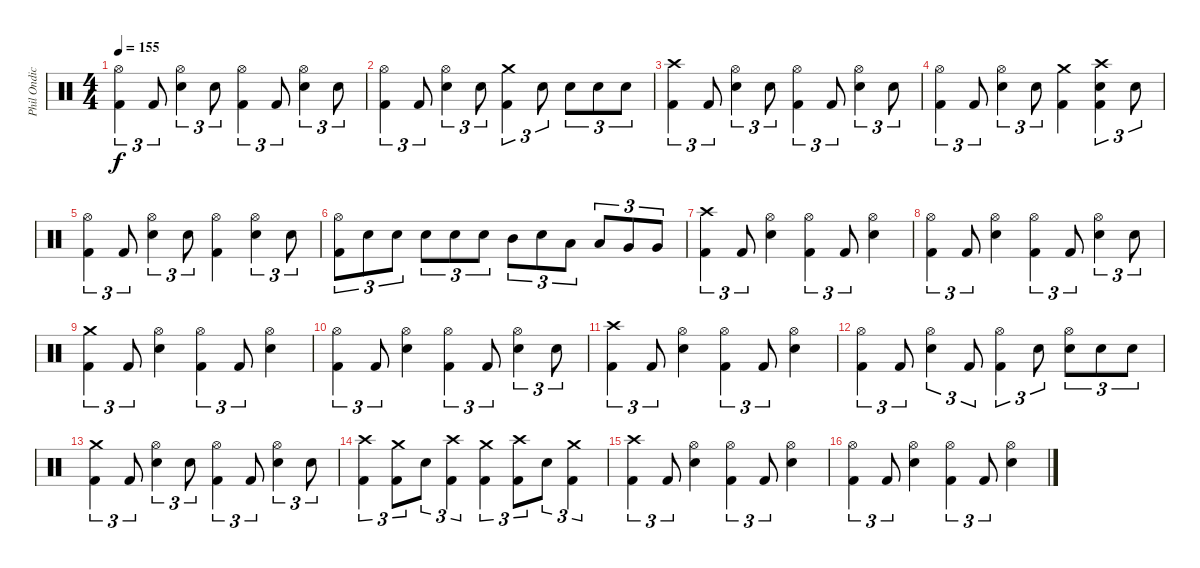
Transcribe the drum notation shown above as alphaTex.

\track ("Phil Ondich Drums" "Phil Ondic") {instrument percussion}
\staff {score}
\articulation defaults
\ts (4 4)
\tempo 155
\clef neutral
\ks c
("Hi-Hat (open)" "Kick (hit) 2").4{tu (3 2) dy f} "Kick (hit) 2".8{tu (3 2)} ("Hi-Hat (open)" "Snare (hit) 2").4{tu (3 2)} "Snare (hit) 2".8{tu (3 2)} ("Hi-Hat (open)" "Kick (hit) 2").4{tu (3 2)} "Kick (hit) 2".8{tu (3 2)} ("Hi-Hat (open)" "Snare (hit) 2").4{tu (3 2)} "Snare (hit) 2".8{tu (3 2)} |
("Hi-Hat (open)" "Kick (hit) 2").4{tu (3 2)} "Kick (hit) 2".8{tu (3 2)} ("Hi-Hat (open)" "Snare (hit) 2").4{tu (3 2)} "Snare (hit) 2".8{tu (3 2)} ("Crash medium (hit)" "Kick (hit) 2").4{tu (3 2)} "Snare (hit) 2".8{tu (3 2)} "Snare (hit) 2".8{tu (3 2)} "Snare (hit) 2".8{tu (3 2)} "Snare (hit) 2".8{tu (3 2)} |
("Crash high (hit)" "Kick (hit) 2").4{tu (3 2)} "Kick (hit) 2".8{tu (3 2)} ("Hi-Hat (open)" "Snare (hit) 2").4{tu (3 2)} "Snare (hit) 2".8{tu (3 2)} ("Hi-Hat (open)" "Kick (hit) 2").4{tu (3 2)} "Kick (hit) 2".8{tu (3 2)} ("Hi-Hat (open)" "Snare (hit) 2").4{tu (3 2)} "Snare (hit) 2".8{tu (3 2)} |
("Hi-Hat (open)" "Kick (hit) 2").4{tu (3 2)} "Kick (hit) 2".8{tu (3 2)} ("Hi-Hat (open)" "Snare (hit) 2").4{tu (3 2)} "Snare (hit) 2".8{tu (3 2)} ("Crash medium (hit)" "Kick (hit) 2").4 ("Crash high (hit)" "Snare (hit) 2" "Kick (hit) 2").4{tu (3 2)} "Snare (hit) 2".8{tu (3 2)} |
("Hi-Hat (open)" "Kick (hit) 2").4{tu (3 2)} "Kick (hit) 2".8{tu (3 2)} ("Hi-Hat (open)" "Snare (hit) 2").4{tu (3 2)} "Snare (hit) 2".8{tu (3 2)} ("Hi-Hat (open)" "Kick (hit) 2").4 ("Hi-Hat (open)" "Snare (hit) 2").4{tu (3 2)} "Snare (hit) 2".8{tu (3 2)} |
("Hi-Hat (open)" "Kick (hit) 2").8{tu (3 2)} "Snare (hit) 2".8{tu (3 2)} "Snare (hit) 2".8{tu (3 2)} "Snare (hit) 2".8{tu (3 2)} "Snare (hit) 2".8{tu (3 2)} "Snare (hit) 2".8{tu (3 2)} "Mid Tom (hit)".8{tu (3 2)} "Snare (hit) 2".8{tu (3 2)} "Low Tom (hit)".8{tu (3 2)} "Low Tom (hit)".8{tu (3 2)} "Very Low Tom (hit)".8{tu (3 2)} "Very Low Tom (hit)".8{tu (3 2)} |
("Crash high (hit)" "Kick (hit) 2").4{tu (3 2)} "Kick (hit) 2".8{tu (3 2)} ("Hi-Hat (open)" "Snare (hit) 2").4 ("Hi-Hat (open)" "Kick (hit) 2").4{tu (3 2)} "Kick (hit) 2".8{tu (3 2)} ("Hi-Hat (open)" "Snare (hit) 2").4 |
("Hi-Hat (open)" "Kick (hit) 2").4{tu (3 2)} "Kick (hit) 2".8{tu (3 2)} ("Hi-Hat (open)" "Snare (hit) 2").4 ("Hi-Hat (open)" "Kick (hit) 2").4{tu (3 2)} "Kick (hit) 2".8{tu (3 2)} ("Hi-Hat (open)" "Snare (hit) 2").4{tu (3 2)} "Snare (hit) 2".8{tu (3 2)} |
("Crash medium (hit)" "Kick (hit) 2").4{tu (3 2)} "Kick (hit) 2".8{tu (3 2)} ("Hi-Hat (open)" "Snare (hit) 2").4 ("Hi-Hat (open)" "Kick (hit) 2").4{tu (3 2)} "Kick (hit) 2".8{tu (3 2)} ("Hi-Hat (open)" "Snare (hit) 2").4 |
("Hi-Hat (open)" "Kick (hit) 2").4{tu (3 2)} "Kick (hit) 2".8{tu (3 2)} ("Hi-Hat (open)" "Snare (hit) 2").4 ("Hi-Hat (open)" "Kick (hit) 2").4{tu (3 2)} "Kick (hit) 2".8{tu (3 2)} ("Hi-Hat (open)" "Snare (hit) 2").4{tu (3 2)} "Snare (hit) 2".8{tu (3 2)} |
("Crash high (hit)" "Kick (hit) 2").4{tu (3 2)} "Kick (hit) 2".8{tu (3 2)} ("Hi-Hat (open)" "Snare (hit) 2").4 ("Hi-Hat (open)" "Kick (hit) 2").4{tu (3 2)} "Kick (hit) 2".8{tu (3 2)} ("Hi-Hat (open)" "Snare (hit) 2").4 |
("Hi-Hat (open)" "Kick (hit) 2").4{tu (3 2)} "Kick (hit) 2".8{tu (3 2)} ("Hi-Hat (open)" "Snare (hit) 2").4{tu (3 2)} "Kick (hit) 2".8{tu (3 2)} ("Hi-Hat (open)" "Kick (hit) 2").4{tu (3 2)} "Snare (hit) 2".8{tu (3 2)} ("Hi-Hat (open)" "Snare (hit) 2").8{tu (3 2)} "Snare (hit) 2".8{tu (3 2)} "Snare (hit) 2".8{tu (3 2)} |
("Crash medium (hit)" "Kick (hit) 2").4{tu (3 2)} "Kick (hit) 2".8{tu (3 2)} ("Hi-Hat (open)" "Snare (hit) 2").4{tu (3 2)} "Snare (hit) 2".8{tu (3 2)} ("Hi-Hat (open)" "Kick (hit) 2").4{tu (3 2)} "Kick (hit) 2".8{tu (3 2)} ("Hi-Hat (open)" "Snare (hit) 2").4{tu (3 2)} "Snare (hit) 2".8{tu (3 2)} |
("Crash high (hit)" "Kick (hit) 2").4{tu (3 2)} ("Crash medium (hit)" "Kick (hit) 2").8{tu (3 2) beam merge} "Snare (hit) 2".8{tu (3 2)} ("Crash high (hit)" "Kick (hit) 2").4{tu (3 2)} ("Crash medium (hit)" "Kick (hit) 2").4{tu (3 2)} ("Crash high (hit)" "Kick (hit) 2").8{tu (3 2) beam merge} "Snare (hit) 2".8{tu (3 2)} ("Crash medium (hit)" "Kick (hit) 2").4{tu (3 2)} |
("Crash high (hit)" "Kick (hit) 2").4{tu (3 2)} "Kick (hit) 2".8{tu (3 2)} ("Hi-Hat (open)" "Snare (hit) 2").4 ("Hi-Hat (open)" "Kick (hit) 2").4{tu (3 2)} "Kick (hit) 2".8{tu (3 2)} ("Hi-Hat (open)" "Snare (hit) 2").4 |
("Hi-Hat (open)" "Kick (hit) 2").4{tu (3 2)} "Kick (hit) 2".8{tu (3 2)} ("Hi-Hat (open)" "Snare (hit) 2").4 ("Hi-Hat (open)" "Kick (hit) 2").4{tu (3 2)} "Kick (hit) 2".8{tu (3 2)} ("Hi-Hat (open)" "Snare (hit) 2").4
